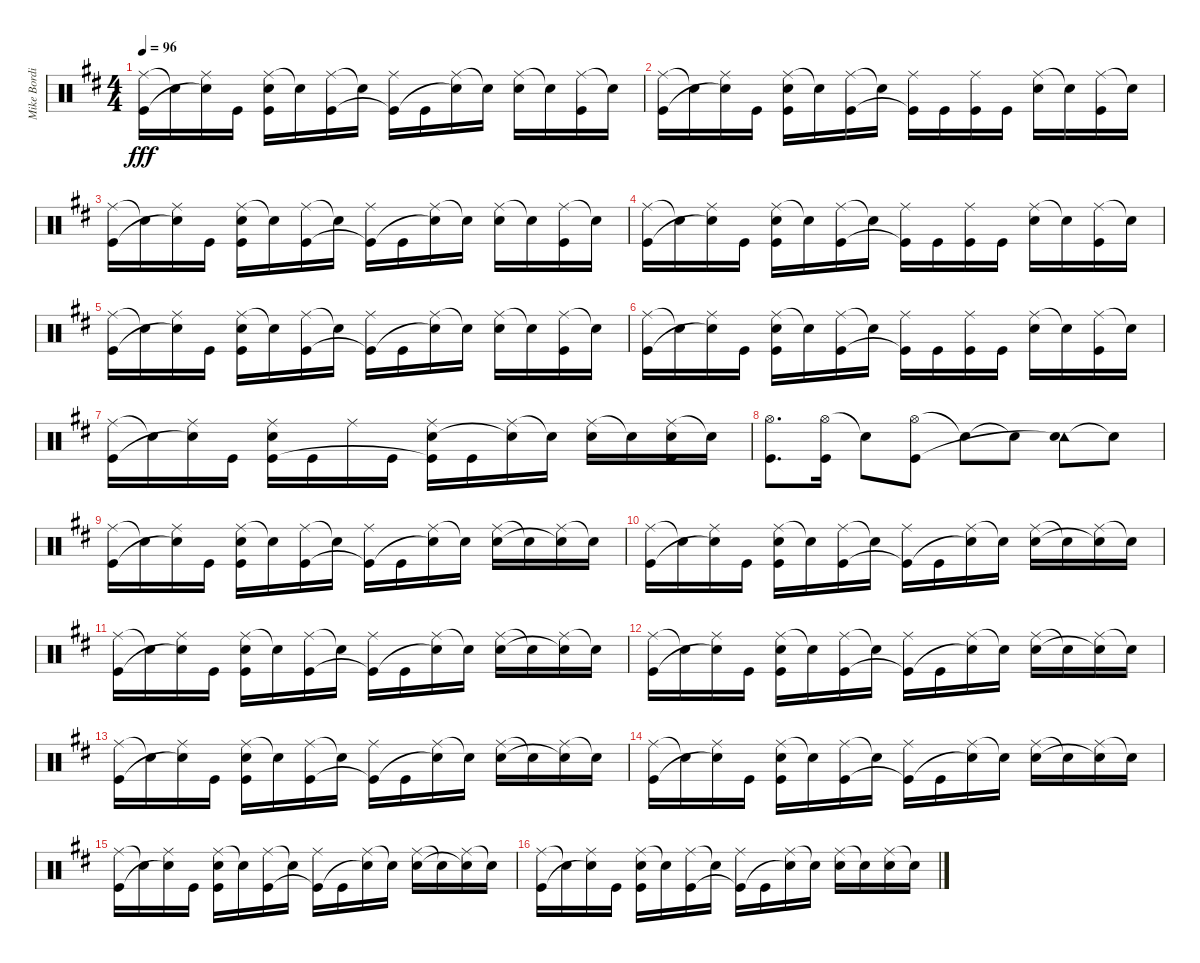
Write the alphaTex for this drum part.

\track ("Mike Bordin" "Mike Bordi") {instrument percussion}
\staff {score}
\articulation defaults
\ts (4 4)
\tempo 96
\clef neutral
\ks d
("Ride (middle)" "Kick (hit)").16{dy fff} "Snare (hit)"{t}.16 ("Ride (middle)" "Snare (hit)"{t}).16 "Kick (hit)".16 ("Ride (middle)" "Electric Snare (hit)" "Kick (hit)").16 "Snare (hit)"{t}.16 ("Ride (middle)" "Kick (hit)").16 "Snare (hit)"{t}.16 ("Ride (middle)" "Kick (hit)"{t}).16 "Kick (hit)".16 ("Ride (middle)" "Snare (hit)"{t}).16 "Snare (hit)"{t}.16 ("Ride (middle)" "Electric Snare (hit)").16 "Snare (hit)"{t}.16 ("Ride (middle)" "Kick (hit)").16 "Snare (hit)"{t}.16 |
("Ride (middle)" "Kick (hit)").16 "Snare (hit)"{t}.16 ("Ride (middle)" "Snare (hit)"{t}).16 "Kick (hit)".16 ("Ride (middle)" "Electric Snare (hit)" "Kick (hit)").16 "Snare (hit)"{t}.16 ("Ride (middle)" "Kick (hit)").16 "Snare (hit)"{t}.16 ("Ride (middle)" "Kick (hit)"{t}).16 "Kick (hit)".16 ("Ride (middle)" "Kick (hit)").16 "Kick (hit)".16 ("Ride (middle)" "Electric Snare (hit)").16 "Snare (hit)"{t}.16 ("Ride (middle)" "Kick (hit)").16 "Snare (hit)"{t}.16 |
("Ride (middle)" "Kick (hit)").16 "Snare (hit)"{t}.16 ("Ride (middle)" "Snare (hit)"{t}).16 "Kick (hit)".16 ("Ride (middle)" "Electric Snare (hit)" "Kick (hit)").16 "Snare (hit)"{t}.16 ("Ride (middle)" "Kick (hit)").16 "Snare (hit)"{t}.16 ("Ride (middle)" "Kick (hit)"{t}).16 "Kick (hit)".16 ("Ride (middle)" "Snare (hit)"{t}).16 "Snare (hit)"{t}.16 ("Ride (middle)" "Electric Snare (hit)").16 "Snare (hit)"{t}.16 ("Ride (middle)" "Kick (hit)").16 "Snare (hit)"{t}.16 |
("Ride (middle)" "Kick (hit)").16 "Snare (hit)"{t}.16 ("Ride (middle)" "Snare (hit)"{t}).16 "Kick (hit)".16 ("Ride (middle)" "Electric Snare (hit)" "Kick (hit)").16 "Snare (hit)"{t}.16 ("Ride (middle)" "Kick (hit)").16 "Snare (hit)"{t}.16 ("Ride (middle)" "Kick (hit)"{t}).16 "Kick (hit)".16 ("Ride (middle)" "Kick (hit)").16 "Kick (hit)".16 ("Ride (middle)" "Electric Snare (hit)").16 "Snare (hit)"{t}.16 ("Ride (middle)" "Kick (hit)").16 "Snare (hit)"{t}.16 |
("Ride (middle)" "Kick (hit)").16 "Snare (hit)"{t}.16 ("Ride (middle)" "Snare (hit)"{t}).16 "Kick (hit)".16 ("Ride (middle)" "Electric Snare (hit)" "Kick (hit)").16 "Snare (hit)"{t}.16 ("Ride (middle)" "Kick (hit)").16 "Snare (hit)"{t}.16 ("Ride (middle)" "Kick (hit)"{t}).16 "Kick (hit)".16 ("Ride (middle)" "Snare (hit)"{t}).16 "Snare (hit)"{t}.16 ("Ride (middle)" "Electric Snare (hit)").16 "Snare (hit)"{t}.16 ("Ride (middle)" "Kick (hit)").16 "Snare (hit)"{t}.16 |
("Ride (middle)" "Kick (hit)").16 "Snare (hit)"{t}.16 ("Ride (middle)" "Snare (hit)"{t}).16 "Kick (hit)".16 ("Ride (middle)" "Electric Snare (hit)" "Kick (hit)").16 "Snare (hit)"{t}.16 ("Ride (middle)" "Kick (hit)").16 "Snare (hit)"{t}.16 ("Ride (middle)" "Kick (hit)"{t}).16 "Kick (hit)".16 ("Ride (middle)" "Kick (hit)").16 "Kick (hit)".16 ("Ride (middle)" "Electric Snare (hit)").16 "Snare (hit)"{t}.16 ("Ride (middle)" "Kick (hit)").16 "Snare (hit)"{t}.16 |
("Ride (middle)" "Kick (hit)").16 "Snare (hit)"{t}.16 ("Ride (middle)" "Snare (hit)"{t}).16 "Kick (hit)".16 ("Ride (middle)" "Electric Snare (hit)" "Kick (hit)").16 "Kick (hit)".16 "Ride (middle)".16 "Kick (hit)".16 ("Ride (middle)" "Electric Snare (hit)" "Kick (hit)"{t}).16 "Kick (hit)".16 ("Ride (middle)" "Snare (hit)"{t}).16 "Snare (hit)"{t}.16 ("Ride (middle)" "Electric Snare (hit)").16 "Snare (hit)"{t}.16 ("Ride (middle)" "Electric Snare (hit)" "Kick (hit)").16 "Snare (hit)"{t}.16 |
("Hi-Hat (open)" "Kick (hit)").8{d} ("Hi-Hat (open)" "Kick (hit)").16 "Snare (hit)"{t}.8 ("Hi-Hat (open)" "Kick (hit)").8 "Snare (hit)"{t}.8 "Snare (hit)"{t}.8 ("Tambourine (hit)" "Snare (hit)"{t}).8 "Snare (hit)"{t}.8 |
("Ride (middle)" "Kick (hit)").16 "Snare (hit)"{t}.16 ("Ride (middle)" "Snare (hit)"{t}).16 "Kick (hit)".16 ("Ride (middle)" "Electric Snare (hit)" "Kick (hit)").16 "Snare (hit)"{t}.16 ("Ride (middle)" "Kick (hit)").16 "Snare (hit)"{t}.16 ("Ride (middle)" "Kick (hit)"{t}).16 "Kick (hit)".16 ("Ride (middle)" "Snare (hit)"{t}).16 "Snare (hit)"{t}.16 ("Ride (middle)" "Electric Snare (hit)").16 "Snare (hit)"{t}.16 ("Ride (middle)" "Snare (hit)"{t}).16 "Snare (hit)"{t}.16 |
("Ride (middle)" "Kick (hit)").16 "Snare (hit)"{t}.16 ("Ride (middle)" "Snare (hit)"{t}).16 "Kick (hit)".16 ("Ride (middle)" "Electric Snare (hit)" "Kick (hit)").16 "Snare (hit)"{t}.16 ("Ride (middle)" "Kick (hit)").16 "Snare (hit)"{t}.16 ("Ride (middle)" "Kick (hit)"{t}).16 "Kick (hit)".16 ("Ride (middle)" "Snare (hit)"{t}).16 "Snare (hit)"{t}.16 ("Ride (middle)" "Electric Snare (hit)").16 "Snare (hit)"{t}.16 ("Ride (middle)" "Snare (hit)"{t}).16 "Snare (hit)"{t}.16 |
("Ride (middle)" "Kick (hit)").16 "Snare (hit)"{t}.16 ("Ride (middle)" "Snare (hit)"{t}).16 "Kick (hit)".16 ("Ride (middle)" "Electric Snare (hit)" "Kick (hit)").16 "Snare (hit)"{t}.16 ("Ride (middle)" "Kick (hit)").16 "Snare (hit)"{t}.16 ("Ride (middle)" "Kick (hit)"{t}).16 "Kick (hit)".16 ("Ride (middle)" "Snare (hit)"{t}).16 "Snare (hit)"{t}.16 ("Ride (middle)" "Electric Snare (hit)").16 "Snare (hit)"{t}.16 ("Ride (middle)" "Snare (hit)"{t}).16 "Snare (hit)"{t}.16 |
("Ride (middle)" "Kick (hit)").16 "Snare (hit)"{t}.16 ("Ride (middle)" "Snare (hit)"{t}).16 "Kick (hit)".16 ("Ride (middle)" "Electric Snare (hit)" "Kick (hit)").16 "Snare (hit)"{t}.16 ("Ride (middle)" "Kick (hit)").16 "Snare (hit)"{t}.16 ("Ride (middle)" "Kick (hit)"{t}).16 "Kick (hit)".16 ("Ride (middle)" "Snare (hit)"{t}).16 "Snare (hit)"{t}.16 ("Ride (middle)" "Electric Snare (hit)").16 "Snare (hit)"{t}.16 ("Ride (middle)" "Snare (hit)"{t}).16 "Snare (hit)"{t}.16 |
("Ride (middle)" "Kick (hit)").16 "Snare (hit)"{t}.16 ("Ride (middle)" "Snare (hit)"{t}).16 "Kick (hit)".16 ("Ride (middle)" "Electric Snare (hit)" "Kick (hit)").16 "Snare (hit)"{t}.16 ("Ride (middle)" "Kick (hit)").16 "Snare (hit)"{t}.16 ("Ride (middle)" "Kick (hit)"{t}).16 "Kick (hit)".16 ("Ride (middle)" "Snare (hit)"{t}).16 "Snare (hit)"{t}.16 ("Ride (middle)" "Electric Snare (hit)").16 "Snare (hit)"{t}.16 ("Ride (middle)" "Snare (hit)"{t}).16 "Snare (hit)"{t}.16 |
("Ride (middle)" "Kick (hit)").16 "Snare (hit)"{t}.16 ("Ride (middle)" "Snare (hit)"{t}).16 "Kick (hit)".16 ("Ride (middle)" "Electric Snare (hit)" "Kick (hit)").16 "Snare (hit)"{t}.16 ("Ride (middle)" "Kick (hit)").16 "Snare (hit)"{t}.16 ("Ride (middle)" "Kick (hit)"{t}).16 "Kick (hit)".16 ("Ride (middle)" "Snare (hit)"{t}).16 "Snare (hit)"{t}.16 ("Ride (middle)" "Electric Snare (hit)").16 "Snare (hit)"{t}.16 ("Ride (middle)" "Snare (hit)"{t}).16 "Snare (hit)"{t}.16 |
("Ride (middle)" "Kick (hit)").16 "Snare (hit)"{t}.16 ("Ride (middle)" "Snare (hit)"{t}).16 "Kick (hit)".16 ("Ride (middle)" "Electric Snare (hit)" "Kick (hit)").16 "Snare (hit)"{t}.16 ("Ride (middle)" "Kick (hit)").16 "Snare (hit)"{t}.16 ("Ride (middle)" "Kick (hit)"{t}).16 "Kick (hit)".16 ("Ride (middle)" "Snare (hit)"{t}).16 "Snare (hit)"{t}.16 ("Ride (middle)" "Electric Snare (hit)").16 "Snare (hit)"{t}.16 ("Ride (middle)" "Snare (hit)"{t}).16 "Snare (hit)"{t}.16 |
("Ride (middle)" "Kick (hit)").16 "Snare (hit)"{t}.16 ("Ride (middle)" "Snare (hit)"{t}).16 "Kick (hit)".16 ("Ride (middle)" "Electric Snare (hit)" "Kick (hit)").16 "Snare (hit)"{t}.16 ("Ride (middle)" "Kick (hit)").16 "Snare (hit)"{t}.16 ("Ride (middle)" "Kick (hit)"{t}).16 "Kick (hit)".16 ("Ride (middle)" "Snare (hit)"{t}).16 "Snare (hit)"{t}.16 ("Ride (middle)" "Electric Snare (hit)").16 "Snare (hit)"{t}.16 ("Ride (middle)" "Electric Snare (hit)").16 "Snare (hit)"{t}.16
